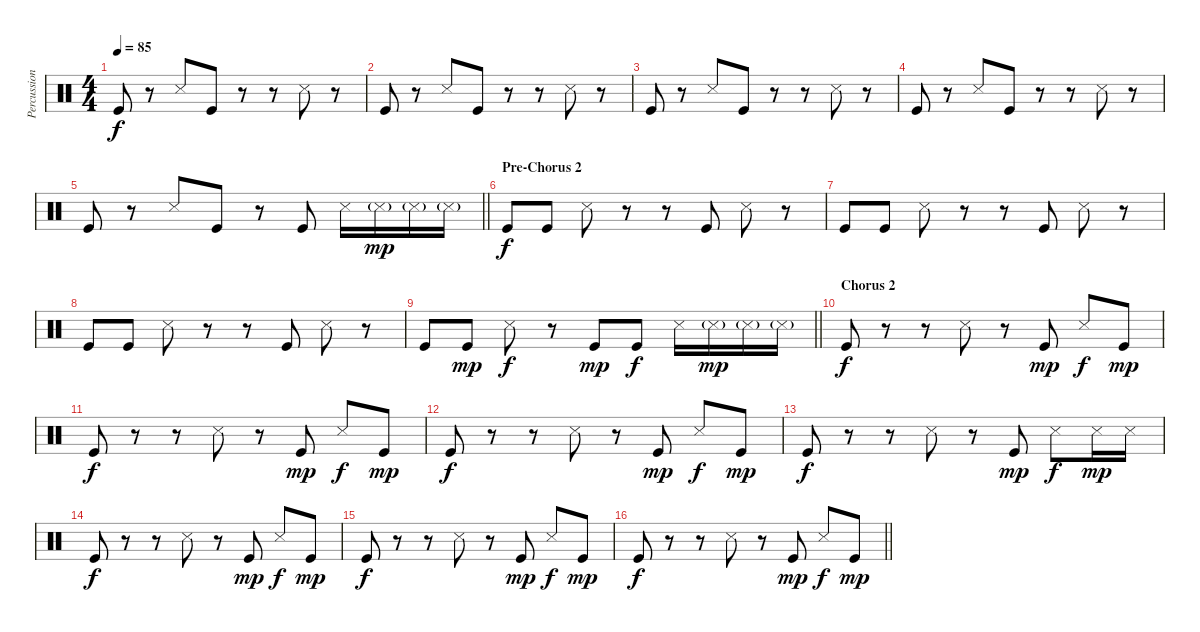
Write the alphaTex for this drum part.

\track ("Percussion" "Percussion") {instrument percussion}
\staff {score}
\articulation defaults
\ts (4 4)
\tempo 85
\clef neutral
\ks c "Kick (hit)".8{dy f}
r.8 "Snare (side stick) 3".8 "Kick (hit)".8 r.8 r.8 "Snare (side stick) 3".8 r.8 |
"Kick (hit)".8 r.8 "Snare (side stick) 3".8 "Kick (hit)".8 r.8 r.8 "Snare (side stick) 3".8 r.8 |
"Kick (hit)".8 r.8 "Snare (side stick) 3".8 "Kick (hit)".8 r.8 r.8 "Snare (side stick) 3".8 r.8 |
"Kick (hit)".8 r.8 "Snare (side stick) 3".8 "Kick (hit)".8 r.8 r.8 "Snare (side stick) 3".8 r.8 |
\barLineRight lightlight "Kick (hit)".8
r.8 "Snare (side stick) 3".8 "Kick (hit)".8 r.8 "Kick (hit)".8 "Snare (side stick) 3".16 "Snare (side stick) 3"{g}.16{dy mp} "Snare (side stick) 3"{g}.16 "Snare (side stick) 3"{g}.16 |
\section ("" "Pre-Chorus 2")
"Kick (hit)".8{dy f} "Kick (hit)".8 "Snare (side stick) 3".8 r.8 r.8 "Kick (hit)".8 "Snare (side stick) 3".8 r.8 |
"Kick (hit)".8 "Kick (hit)".8 "Snare (side stick) 3".8 r.8 r.8 "Kick (hit)".8 "Snare (side stick) 3".8 r.8 |
"Kick (hit)".8 "Kick (hit)".8 "Snare (side stick) 3".8 r.8 r.8 "Kick (hit)".8 "Snare (side stick) 3".8 r.8 |
\barLineRight lightlight "Kick (hit)".8 "Kick (hit)".8{dy mp} "Snare (side stick) 3".8{dy f}
r.8 "Kick (hit)".8{dy mp} "Kick (hit)".8{dy f} "Snare (side stick) 3".16 "Snare (side stick) 3"{g}.16{dy mp} "Snare (side stick) 3"{g}.16 "Snare (side stick) 3"{g}.16 |
\section ("" "Chorus 2")
"Kick (hit)".8{dy f} r.8 r.8 "Snare (side stick) 3".8 r.8 "Kick (hit)".8{dy mp} "Snare (side stick) 3".8{dy f} "Kick (hit)".8{dy mp} |
"Kick (hit)".8{dy f} r.8 r.8 "Snare (side stick) 3".8 r.8 "Kick (hit)".8{dy mp} "Snare (side stick) 3".8{dy f} "Kick (hit)".8{dy mp} |
"Kick (hit)".8{dy f} r.8 r.8 "Snare (side stick) 3".8 r.8 "Kick (hit)".8{dy mp} "Snare (side stick) 3".8{dy f} "Kick (hit)".8{dy mp} |
"Kick (hit)".8{dy f} r.8 r.8 "Snare (side stick) 3".8 r.8 "Kick (hit)".8{dy mp} "Snare (side stick) 3".8{dy f} "Snare (side stick) 3".16{dy mp} "Snare (side stick) 3".16 |
"Kick (hit)".8{dy f} r.8 r.8 "Snare (side stick) 3".8 r.8 "Kick (hit)".8{dy mp} "Snare (side stick) 3".8{dy f} "Kick (hit)".8{dy mp} |
"Kick (hit)".8{dy f} r.8 r.8 "Snare (side stick) 3".8 r.8 "Kick (hit)".8{dy mp} "Snare (side stick) 3".8{dy f} "Kick (hit)".8{dy mp} |
\barLineRight lightlight "Kick (hit)".8{dy f}
r.8 r.8 "Snare (side stick) 3".8 r.8 "Kick (hit)".8{dy mp} "Snare (side stick) 3".8{dy f} "Kick (hit)".8{dy mp}
